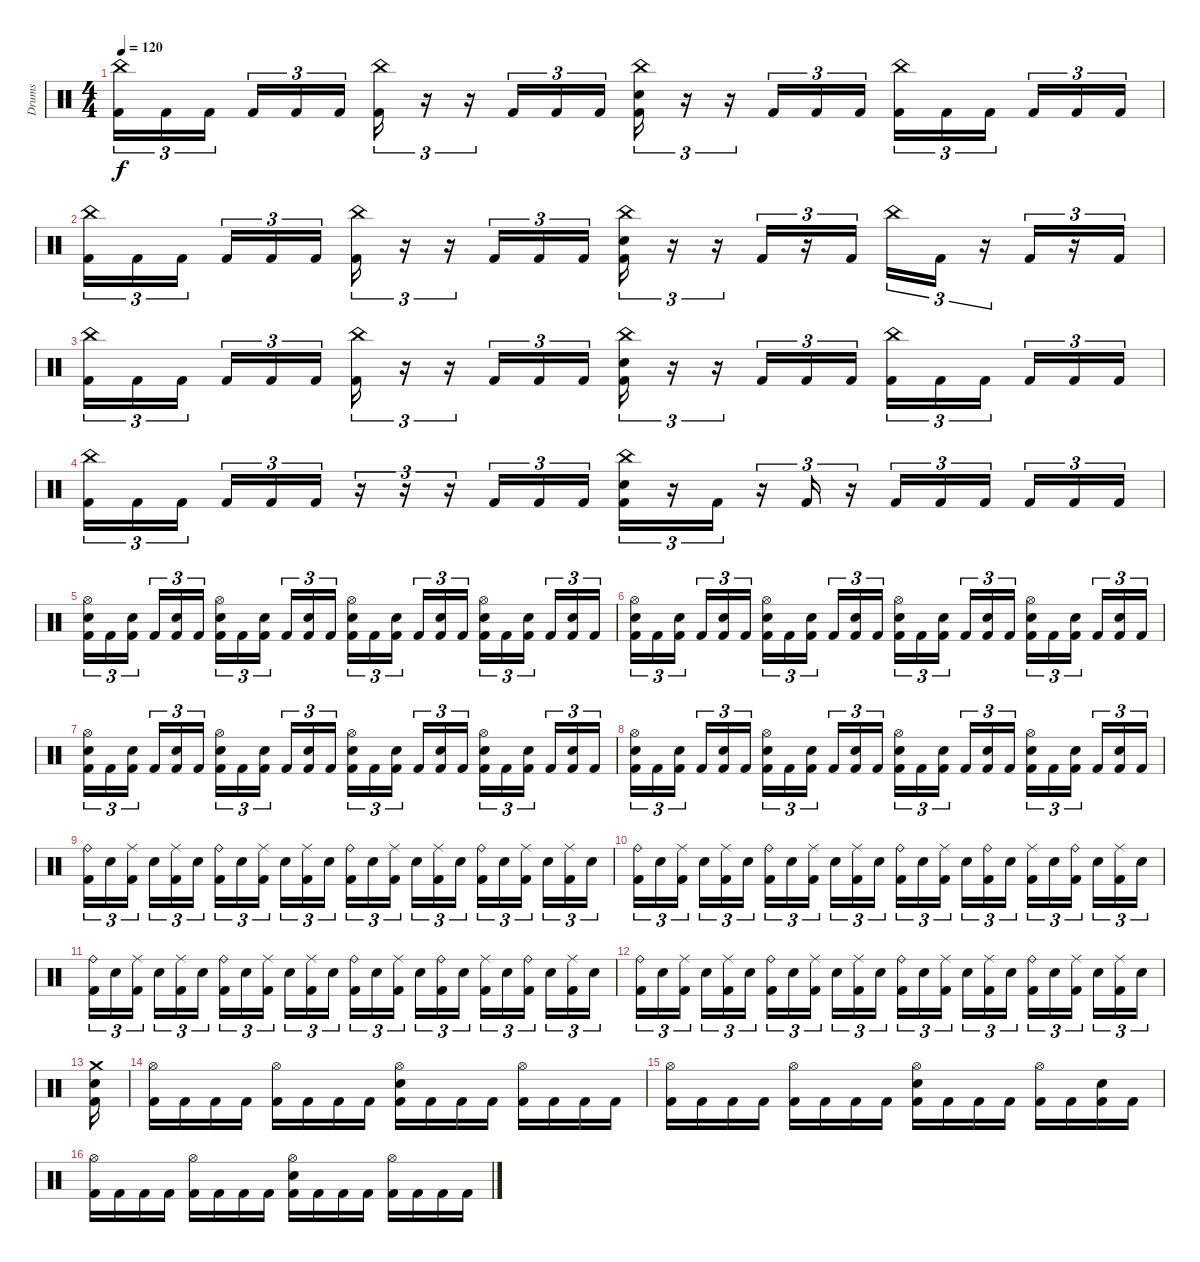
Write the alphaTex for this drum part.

\track ("Drums" "Drums") {instrument percussion}
\staff {score}
\articulation defaults
\ts (4 4)
\tempo 120
\clef neutral
\ks c
("China (hit)" "Kick (hit) 2").16{tu (3 2) dy f} "Kick (hit) 2".16{tu (3 2)} "Kick (hit) 2".16{tu (3 2) beam splitsecondary} "Kick (hit) 2".16{tu (3 2)} "Kick (hit) 2".16{tu (3 2)} "Kick (hit) 2".16{tu (3 2)} ("China (hit)" "Kick (hit) 2").16{tu (3 2)} r.16{tu (3 2)} r.16{tu (3 2)} "Kick (hit) 2".16{tu (3 2)} "Kick (hit) 2".16{tu (3 2)} "Kick (hit) 2".16{tu (3 2)} ("China (hit)" "Snare (hit) 2" "Kick (hit) 2").16{tu (3 2)} r.16{tu (3 2)} r.16{tu (3 2)} "Kick (hit) 2".16{tu (3 2)} "Kick (hit) 2".16{tu (3 2)} "Kick (hit) 2".16{tu (3 2)} ("China (hit)" "Kick (hit) 2").16{tu (3 2)} "Kick (hit) 2".16{tu (3 2)} "Kick (hit) 2".16{tu (3 2) beam splitsecondary} "Kick (hit) 2".16{tu (3 2)} "Kick (hit) 2".16{tu (3 2)} "Kick (hit) 2".16{tu (3 2)} |
("China (hit)" "Kick (hit) 2").16{tu (3 2)} "Kick (hit) 2".16{tu (3 2)} "Kick (hit) 2".16{tu (3 2) beam splitsecondary} "Kick (hit) 2".16{tu (3 2)} "Kick (hit) 2".16{tu (3 2)} "Kick (hit) 2".16{tu (3 2)} ("China (hit)" "Kick (hit) 2").16{tu (3 2)} r.16{tu (3 2)} r.16{tu (3 2)} "Kick (hit) 2".16{tu (3 2)} "Kick (hit) 2".16{tu (3 2)} "Kick (hit) 2".16{tu (3 2)} ("China (hit)" "Snare (hit) 2" "Kick (hit) 2").16{tu (3 2)} r.16{tu (3 2)} r.16{tu (3 2)} "Kick (hit) 2".16{tu (3 2)} r.16{tu (3 2)} "Kick (hit) 2".16{tu (3 2)} "China (hit)".16{tu (3 2)} "Kick (hit) 2".16{tu (3 2)} r.16{tu (3 2)} "Kick (hit) 2".16{tu (3 2)} r.16{tu (3 2)} "Kick (hit) 2".16{tu (3 2)} |
("China (hit)" "Kick (hit) 2").16{tu (3 2)} "Kick (hit) 2".16{tu (3 2)} "Kick (hit) 2".16{tu (3 2) beam splitsecondary} "Kick (hit) 2".16{tu (3 2)} "Kick (hit) 2".16{tu (3 2)} "Kick (hit) 2".16{tu (3 2)} ("China (hit)" "Kick (hit) 2").16{tu (3 2)} r.16{tu (3 2)} r.16{tu (3 2)} "Kick (hit) 2".16{tu (3 2)} "Kick (hit) 2".16{tu (3 2)} "Kick (hit) 2".16{tu (3 2)} ("China (hit)" "Snare (hit) 2" "Kick (hit) 2").16{tu (3 2)} r.16{tu (3 2)} r.16{tu (3 2)} "Kick (hit) 2".16{tu (3 2)} "Kick (hit) 2".16{tu (3 2)} "Kick (hit) 2".16{tu (3 2)} ("China (hit)" "Kick (hit) 2").16{tu (3 2)} "Kick (hit) 2".16{tu (3 2)} "Kick (hit) 2".16{tu (3 2) beam splitsecondary} "Kick (hit) 2".16{tu (3 2)} "Kick (hit) 2".16{tu (3 2)} "Kick (hit) 2".16{tu (3 2)} |
("China (hit)" "Kick (hit) 2").16{tu (3 2)} "Kick (hit) 2".16{tu (3 2)} "Kick (hit) 2".16{tu (3 2) beam splitsecondary} "Kick (hit) 2".16{tu (3 2)} "Kick (hit) 2".16{tu (3 2)} "Kick (hit) 2".16{tu (3 2)} r.16{tu (3 2)} r.16{tu (3 2)} r.16{tu (3 2)} "Kick (hit) 2".16{tu (3 2)} "Kick (hit) 2".16{tu (3 2)} "Kick (hit) 2".16{tu (3 2)} ("China (hit)" "Snare (hit) 2" "Kick (hit) 2").16{tu (3 2)} r.16{tu (3 2)} "Kick (hit) 2".16{tu (3 2)} r.16{tu (3 2)} "Kick (hit) 2".16{tu (3 2)} r.16{tu (3 2)} "Kick (hit) 2".16{tu (3 2)} "Kick (hit) 2".16{tu (3 2)} "Kick (hit) 2".16{tu (3 2) beam splitsecondary} "Kick (hit) 2".16{tu (3 2)} "Kick (hit) 2".16{tu (3 2)} "Kick (hit) 2".16{tu (3 2)} |
("Hi-Hat (open)" "Snare (hit) 2" "Kick (hit) 2").16{tu (3 2)} "Kick (hit) 2".16{tu (3 2)} ("Snare (hit) 2" "Kick (hit) 2").16{tu (3 2) beam splitsecondary} "Kick (hit) 2".16{tu (3 2)} ("Snare (hit) 2" "Kick (hit) 2").16{tu (3 2)} "Kick (hit) 2".16{tu (3 2)} ("Hi-Hat (open)" "Snare (hit) 2" "Kick (hit) 2").16{tu (3 2)} "Kick (hit) 2".16{tu (3 2)} ("Snare (hit) 2" "Kick (hit) 2").16{tu (3 2) beam splitsecondary} "Kick (hit) 2".16{tu (3 2)} ("Snare (hit) 2" "Kick (hit) 2").16{tu (3 2)} "Kick (hit) 2".16{tu (3 2)} ("Hi-Hat (open)" "Snare (hit) 2" "Kick (hit) 2").16{tu (3 2)} "Kick (hit) 2".16{tu (3 2)} ("Snare (hit) 2" "Kick (hit) 2").16{tu (3 2) beam splitsecondary} "Kick (hit) 2".16{tu (3 2)} ("Snare (hit) 2" "Kick (hit) 2").16{tu (3 2)} "Kick (hit) 2".16{tu (3 2)} ("Hi-Hat (open)" "Snare (hit) 2" "Kick (hit) 2").16{tu (3 2)} "Kick (hit) 2".16{tu (3 2)} ("Snare (hit) 2" "Kick (hit) 2").16{tu (3 2) beam splitsecondary} "Kick (hit) 2".16{tu (3 2)} ("Snare (hit) 2" "Kick (hit) 2").16{tu (3 2)} "Kick (hit) 2".16{tu (3 2)} |
("Hi-Hat (open)" "Snare (hit) 2" "Kick (hit) 2").16{tu (3 2)} "Kick (hit) 2".16{tu (3 2)} ("Snare (hit) 2" "Kick (hit) 2").16{tu (3 2) beam splitsecondary} "Kick (hit) 2".16{tu (3 2)} ("Snare (hit) 2" "Kick (hit) 2").16{tu (3 2)} "Kick (hit) 2".16{tu (3 2)} ("Hi-Hat (open)" "Snare (hit) 2" "Kick (hit) 2").16{tu (3 2)} "Kick (hit) 2".16{tu (3 2)} ("Snare (hit) 2" "Kick (hit) 2").16{tu (3 2) beam splitsecondary} "Kick (hit) 2".16{tu (3 2)} ("Snare (hit) 2" "Kick (hit) 2").16{tu (3 2)} "Kick (hit) 2".16{tu (3 2)} ("Hi-Hat (open)" "Snare (hit) 2" "Kick (hit) 2").16{tu (3 2)} "Kick (hit) 2".16{tu (3 2)} ("Snare (hit) 2" "Kick (hit) 2").16{tu (3 2) beam splitsecondary} "Kick (hit) 2".16{tu (3 2)} ("Snare (hit) 2" "Kick (hit) 2").16{tu (3 2)} "Kick (hit) 2".16{tu (3 2)} ("Hi-Hat (open)" "Snare (hit) 2" "Kick (hit) 2").16{tu (3 2)} "Kick (hit) 2".16{tu (3 2)} ("Snare (hit) 2" "Kick (hit) 2").16{tu (3 2) beam splitsecondary} "Kick (hit) 2".16{tu (3 2)} ("Snare (hit) 2" "Kick (hit) 2").16{tu (3 2)} "Kick (hit) 2".16{tu (3 2)} |
("Hi-Hat (open)" "Snare (hit) 2" "Kick (hit) 2").16{tu (3 2)} "Kick (hit) 2".16{tu (3 2)} ("Snare (hit) 2" "Kick (hit) 2").16{tu (3 2) beam splitsecondary} "Kick (hit) 2".16{tu (3 2)} ("Snare (hit) 2" "Kick (hit) 2").16{tu (3 2)} "Kick (hit) 2".16{tu (3 2)} ("Hi-Hat (open)" "Snare (hit) 2" "Kick (hit) 2").16{tu (3 2)} "Kick (hit) 2".16{tu (3 2)} ("Snare (hit) 2" "Kick (hit) 2").16{tu (3 2) beam splitsecondary} "Kick (hit) 2".16{tu (3 2)} ("Snare (hit) 2" "Kick (hit) 2").16{tu (3 2)} "Kick (hit) 2".16{tu (3 2)} ("Hi-Hat (open)" "Snare (hit) 2" "Kick (hit) 2").16{tu (3 2)} "Kick (hit) 2".16{tu (3 2)} ("Snare (hit) 2" "Kick (hit) 2").16{tu (3 2) beam splitsecondary} "Kick (hit) 2".16{tu (3 2)} ("Snare (hit) 2" "Kick (hit) 2").16{tu (3 2)} "Kick (hit) 2".16{tu (3 2)} ("Hi-Hat (open)" "Snare (hit) 2" "Kick (hit) 2").16{tu (3 2)} "Kick (hit) 2".16{tu (3 2)} ("Snare (hit) 2" "Kick (hit) 2").16{tu (3 2) beam splitsecondary} "Kick (hit) 2".16{tu (3 2)} ("Snare (hit) 2" "Kick (hit) 2").16{tu (3 2)} "Kick (hit) 2".16{tu (3 2)} |
("Hi-Hat (open)" "Snare (hit) 2" "Kick (hit) 2").16{tu (3 2)} "Kick (hit) 2".16{tu (3 2)} ("Snare (hit) 2" "Kick (hit) 2").16{tu (3 2) beam splitsecondary} "Kick (hit) 2".16{tu (3 2)} ("Snare (hit) 2" "Kick (hit) 2").16{tu (3 2)} "Kick (hit) 2".16{tu (3 2)} ("Hi-Hat (open)" "Snare (hit) 2" "Kick (hit) 2").16{tu (3 2)} "Kick (hit) 2".16{tu (3 2)} ("Snare (hit) 2" "Kick (hit) 2").16{tu (3 2) beam splitsecondary} "Kick (hit) 2".16{tu (3 2)} ("Snare (hit) 2" "Kick (hit) 2").16{tu (3 2)} "Kick (hit) 2".16{tu (3 2)} ("Hi-Hat (open)" "Snare (hit) 2" "Kick (hit) 2").16{tu (3 2)} "Kick (hit) 2".16{tu (3 2)} ("Snare (hit) 2" "Kick (hit) 2").16{tu (3 2) beam splitsecondary} "Kick (hit) 2".16{tu (3 2)} ("Snare (hit) 2" "Kick (hit) 2").16{tu (3 2)} "Kick (hit) 2".16{tu (3 2)} ("Hi-Hat (open)" "Snare (hit) 2" "Kick (hit) 2").16{tu (3 2)} "Kick (hit) 2".16{tu (3 2)} ("Snare (hit) 2" "Kick (hit) 2").16{tu (3 2) beam splitsecondary} "Kick (hit) 2".16{tu (3 2)} ("Snare (hit) 2" "Kick (hit) 2").16{tu (3 2)} "Kick (hit) 2".16{tu (3 2)} |
("Ride (bell)" "Kick (hit) 2").16{tu (3 2)} "Snare (hit) 2".16{tu (3 2)} ("Ride (middle)" "Kick (hit) 2").16{tu (3 2) beam splitsecondary} "Snare (hit) 2".16{tu (3 2)} ("Ride (middle)" "Kick (hit) 2").16{tu (3 2)} "Snare (hit) 2".16{tu (3 2)} ("Ride (bell)" "Kick (hit) 2").16{tu (3 2)} "Snare (hit) 2".16{tu (3 2)} ("Ride (middle)" "Kick (hit) 2").16{tu (3 2) beam splitsecondary} "Snare (hit) 2".16{tu (3 2)} ("Ride (middle)" "Kick (hit) 2").16{tu (3 2)} "Snare (hit) 2".16{tu (3 2)} ("Ride (bell)" "Kick (hit) 2").16{tu (3 2)} "Snare (hit) 2".16{tu (3 2)} ("Ride (middle)" "Kick (hit) 2").16{tu (3 2) beam splitsecondary} "Snare (hit) 2".16{tu (3 2)} ("Ride (middle)" "Kick (hit) 2").16{tu (3 2)} "Snare (hit) 2".16{tu (3 2)} ("Ride (bell)" "Kick (hit) 2").16{tu (3 2)} "Snare (hit) 2".16{tu (3 2)} ("Ride (middle)" "Kick (hit) 2").16{tu (3 2) beam splitsecondary} "Snare (hit) 2".16{tu (3 2)} ("Ride (middle)" "Kick (hit) 2").16{tu (3 2)} "Snare (hit) 2".16{tu (3 2)} |
("Ride (bell)" "Kick (hit) 2").16{tu (3 2)} "Snare (hit) 2".16{tu (3 2)} ("Ride (middle)" "Kick (hit) 2").16{tu (3 2) beam splitsecondary} "Snare (hit) 2".16{tu (3 2)} ("Ride (middle)" "Kick (hit) 2").16{tu (3 2)} "Snare (hit) 2".16{tu (3 2)} ("Ride (bell)" "Kick (hit) 2").16{tu (3 2)} "Snare (hit) 2".16{tu (3 2)} ("Ride (middle)" "Kick (hit) 2").16{tu (3 2) beam splitsecondary} "Snare (hit) 2".16{tu (3 2)} ("Ride (middle)" "Kick (hit) 2").16{tu (3 2)} "Snare (hit) 2".16{tu (3 2)} ("Ride (bell)" "Kick (hit) 2").16{tu (3 2)} "Snare (hit) 2".16{tu (3 2)} ("Ride (middle)" "Kick (hit) 2").16{tu (3 2) beam splitsecondary} "Snare (hit) 2".16{tu (3 2)} ("Ride (bell)" "Kick (hit) 2").16{tu (3 2)} "Snare (hit) 2".16{tu (3 2)} ("Ride (middle)" "Kick (hit) 2").16{tu (3 2)} "Snare (hit) 2".16{tu (3 2)} ("Ride (bell)" "Kick (hit) 2").16{tu (3 2) beam splitsecondary} "Snare (hit) 2".16{tu (3 2)} ("Ride (middle)" "Kick (hit) 2").16{tu (3 2)} "Snare (hit) 2".16{tu (3 2)} |
("Ride (bell)" "Kick (hit) 2").16{tu (3 2)} "Snare (hit) 2".16{tu (3 2)} ("Ride (middle)" "Kick (hit) 2").16{tu (3 2) beam splitsecondary} "Snare (hit) 2".16{tu (3 2)} ("Ride (middle)" "Kick (hit) 2").16{tu (3 2)} "Snare (hit) 2".16{tu (3 2)} ("Ride (bell)" "Kick (hit) 2").16{tu (3 2)} "Snare (hit) 2".16{tu (3 2)} ("Ride (middle)" "Kick (hit) 2").16{tu (3 2) beam splitsecondary} "Snare (hit) 2".16{tu (3 2)} ("Ride (middle)" "Kick (hit) 2").16{tu (3 2)} "Snare (hit) 2".16{tu (3 2)} ("Ride (bell)" "Kick (hit) 2").16{tu (3 2)} "Snare (hit) 2".16{tu (3 2)} ("Ride (middle)" "Kick (hit) 2").16{tu (3 2) beam splitsecondary} "Snare (hit) 2".16{tu (3 2)} ("Ride (bell)" "Kick (hit) 2").16{tu (3 2)} "Snare (hit) 2".16{tu (3 2)} ("Ride (middle)" "Kick (hit) 2").16{tu (3 2)} "Snare (hit) 2".16{tu (3 2)} ("Ride (bell)" "Kick (hit) 2").16{tu (3 2) beam splitsecondary} "Snare (hit) 2".16{tu (3 2)} ("Ride (middle)" "Kick (hit) 2").16{tu (3 2)} "Snare (hit) 2".16{tu (3 2)} |
("Ride (bell)" "Kick (hit) 2").16{tu (3 2)} "Snare (hit) 2".16{tu (3 2)} ("Ride (middle)" "Kick (hit) 2").16{tu (3 2) beam splitsecondary} "Snare (hit) 2".16{tu (3 2)} ("Ride (middle)" "Kick (hit) 2").16{tu (3 2)} "Snare (hit) 2".16{tu (3 2)} ("Ride (bell)" "Kick (hit) 2").16{tu (3 2)} "Snare (hit) 2".16{tu (3 2)} ("Ride (middle)" "Kick (hit) 2").16{tu (3 2) beam splitsecondary} "Snare (hit) 2".16{tu (3 2)} ("Ride (middle)" "Kick (hit) 2").16{tu (3 2)} "Snare (hit) 2".16{tu (3 2)} ("Ride (bell)" "Kick (hit) 2").16{tu (3 2)} "Snare (hit) 2".16{tu (3 2)} ("Ride (middle)" "Kick (hit) 2").16{tu (3 2) beam splitsecondary} "Snare (hit) 2".16{tu (3 2)} ("Ride (middle)" "Kick (hit) 2").16{tu (3 2)} "Snare (hit) 2".16{tu (3 2)} ("Ride (bell)" "Kick (hit) 2").16{tu (3 2)} "Snare (hit) 2".16{tu (3 2)} ("Ride (middle)" "Kick (hit) 2").16{tu (3 2) beam splitsecondary} "Snare (hit) 2".16{tu (3 2)} ("Ride (middle)" "Kick (hit) 2").16{tu (3 2)} "Snare (hit) 2".16{tu (3 2)} |
("Crash medium (hit)" "Snare (hit) 2" "Kick (hit) 2").16 |
("Hi-Hat (open)" "Kick (hit) 2").16 "Kick (hit) 2".16 "Kick (hit) 2".16 "Kick (hit) 2".16 ("Hi-Hat (open)" "Kick (hit) 2").16 "Kick (hit) 2".16 "Kick (hit) 2".16 "Kick (hit) 2".16 ("Hi-Hat (open)" "Snare (hit) 2" "Kick (hit) 2").16 "Kick (hit) 2".16 "Kick (hit) 2".16 "Kick (hit) 2".16 ("Hi-Hat (open)" "Kick (hit) 2").16 "Kick (hit) 2".16 "Kick (hit) 2".16 "Kick (hit) 2".16 |
("Hi-Hat (open)" "Kick (hit) 2").16 "Kick (hit) 2".16 "Kick (hit) 2".16 "Kick (hit) 2".16 ("Hi-Hat (open)" "Kick (hit) 2").16 "Kick (hit) 2".16 "Kick (hit) 2".16 "Kick (hit) 2".16 ("Hi-Hat (open)" "Snare (hit) 2" "Kick (hit) 2").16 "Kick (hit) 2".16 "Kick (hit) 2".16 "Kick (hit) 2".16 ("Hi-Hat (open)" "Kick (hit) 2").16 "Kick (hit) 2".16 ("Snare (hit) 2" "Kick (hit) 2").16 "Kick (hit) 2".16 |
("Hi-Hat (open)" "Kick (hit) 2").16 "Kick (hit) 2".16 "Kick (hit) 2".16 "Kick (hit) 2".16 ("Hi-Hat (open)" "Kick (hit) 2").16 "Kick (hit) 2".16 "Kick (hit) 2".16 "Kick (hit) 2".16 ("Hi-Hat (open)" "Snare (hit) 2" "Kick (hit) 2").16 "Kick (hit) 2".16 "Kick (hit) 2".16 "Kick (hit) 2".16 ("Hi-Hat (open)" "Kick (hit) 2").16 "Kick (hit) 2".16 "Kick (hit) 2".16 "Kick (hit) 2".16
